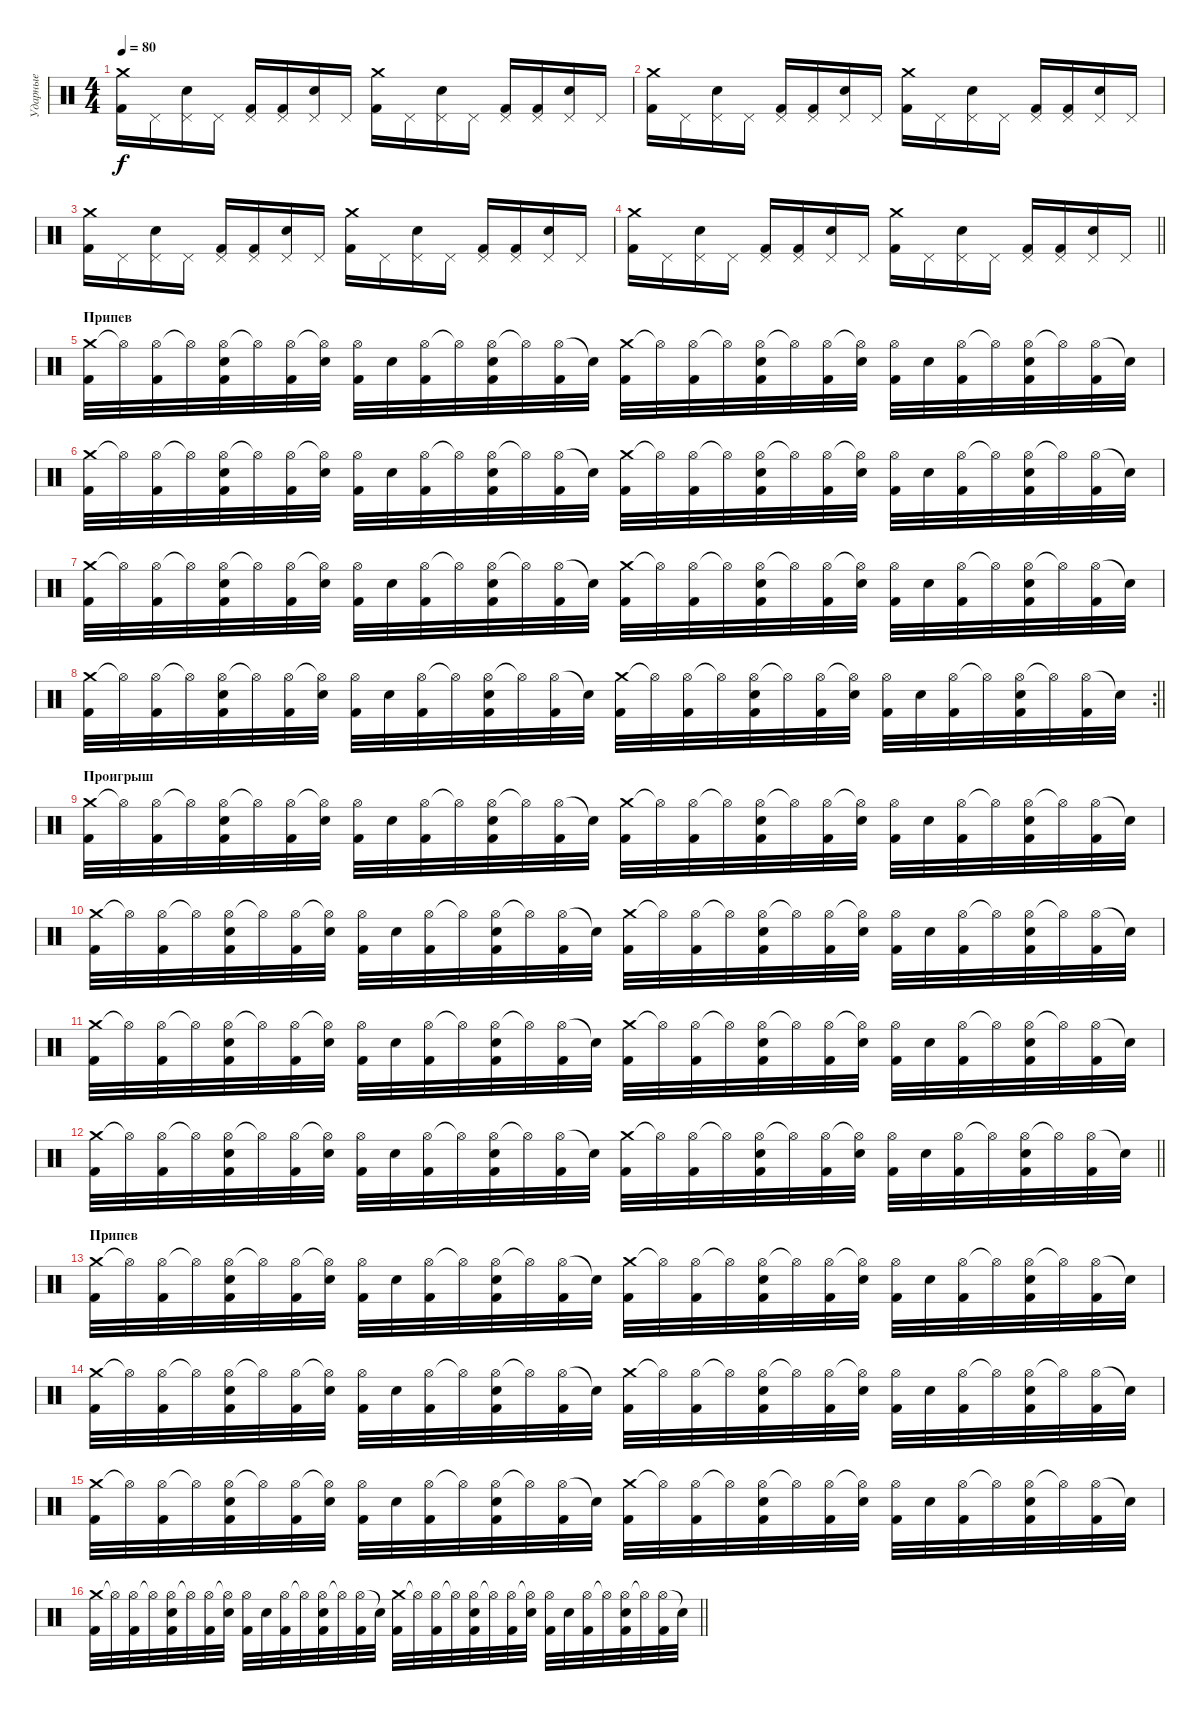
\track ("Ударные" "Ударные") {instrument percussion}
\staff {score}
\articulation defaults
\ts (4 4)
\tempo 80
\clef neutral
\ks c
("Crash medium (hit)" "Kick (hit) 2").16{dy f} "Pedal Hi-Hat (hit)".16 ("Pedal Hi-Hat (hit)" "Snare (hit) 2").16 "Pedal Hi-Hat (hit)".16 ("Pedal Hi-Hat (hit)" "Kick (hit) 2").16 ("Pedal Hi-Hat (hit)" "Kick (hit) 2").16 ("Pedal Hi-Hat (hit)" "Snare (hit) 2").16 "Pedal Hi-Hat (hit)".16 ("Crash medium (hit)" "Kick (hit) 2").16 "Pedal Hi-Hat (hit)".16 ("Pedal Hi-Hat (hit)" "Snare (hit) 2").16 "Pedal Hi-Hat (hit)".16 ("Pedal Hi-Hat (hit)" "Kick (hit) 2").16 ("Pedal Hi-Hat (hit)" "Kick (hit) 2").16 ("Pedal Hi-Hat (hit)" "Snare (hit) 2").16 "Pedal Hi-Hat (hit)".16 |
("Crash medium (hit)" "Kick (hit) 2").16 "Pedal Hi-Hat (hit)".16 ("Pedal Hi-Hat (hit)" "Snare (hit) 2").16 "Pedal Hi-Hat (hit)".16 ("Pedal Hi-Hat (hit)" "Kick (hit) 2").16 ("Pedal Hi-Hat (hit)" "Kick (hit) 2").16 ("Pedal Hi-Hat (hit)" "Snare (hit) 2").16 "Pedal Hi-Hat (hit)".16 ("Crash medium (hit)" "Kick (hit) 2").16 "Pedal Hi-Hat (hit)".16 ("Pedal Hi-Hat (hit)" "Snare (hit) 2").16 "Pedal Hi-Hat (hit)".16 ("Pedal Hi-Hat (hit)" "Kick (hit) 2").16 ("Pedal Hi-Hat (hit)" "Kick (hit) 2").16 ("Pedal Hi-Hat (hit)" "Snare (hit) 2").16 "Pedal Hi-Hat (hit)".16 |
("Crash medium (hit)" "Kick (hit) 2").16 "Pedal Hi-Hat (hit)".16 ("Pedal Hi-Hat (hit)" "Snare (hit) 2").16 "Pedal Hi-Hat (hit)".16 ("Pedal Hi-Hat (hit)" "Kick (hit) 2").16 ("Pedal Hi-Hat (hit)" "Kick (hit) 2").16 ("Pedal Hi-Hat (hit)" "Snare (hit) 2").16 "Pedal Hi-Hat (hit)".16 ("Crash medium (hit)" "Kick (hit) 2").16 "Pedal Hi-Hat (hit)".16 ("Pedal Hi-Hat (hit)" "Snare (hit) 2").16 "Pedal Hi-Hat (hit)".16 ("Pedal Hi-Hat (hit)" "Kick (hit) 2").16 ("Pedal Hi-Hat (hit)" "Kick (hit) 2").16 ("Pedal Hi-Hat (hit)" "Snare (hit) 2").16 "Pedal Hi-Hat (hit)".16 |
\barLineRight lightlight
("Crash medium (hit)" "Kick (hit) 2").16 "Pedal Hi-Hat (hit)".16 ("Pedal Hi-Hat (hit)" "Snare (hit) 2").16 "Pedal Hi-Hat (hit)".16 ("Pedal Hi-Hat (hit)" "Kick (hit) 2").16 ("Pedal Hi-Hat (hit)" "Kick (hit) 2").16 ("Pedal Hi-Hat (hit)" "Snare (hit) 2").16 "Pedal Hi-Hat (hit)".16 ("Crash medium (hit)" "Kick (hit) 2").16 "Pedal Hi-Hat (hit)".16 ("Pedal Hi-Hat (hit)" "Snare (hit) 2").16 "Pedal Hi-Hat (hit)".16 ("Pedal Hi-Hat (hit)" "Kick (hit) 2").16 ("Pedal Hi-Hat (hit)" "Kick (hit) 2").16 ("Pedal Hi-Hat (hit)" "Snare (hit) 2").16 "Pedal Hi-Hat (hit)".16 |
\section ("" "Припев")
("Crash medium (hit)" "Kick (hit) 2").32 "Hi-Hat (open)"{t}.32 ("Hi-Hat (open)" "Kick (hit) 2").32 "Hi-Hat (open)"{t}.32 ("Hi-Hat (open)" "Snare (hit) 2" "Kick (hit) 2").32 "Hi-Hat (open)"{t}.32 ("Hi-Hat (open)" "Kick (hit) 2").32 ("Hi-Hat (open)"{t} "Snare (hit) 2").32 ("Hi-Hat (open)" "Kick (hit) 2").32 "Snare (hit) 2".32 ("Hi-Hat (open)" "Kick (hit) 2").32 "Hi-Hat (open)"{t}.32 ("Hi-Hat (open)" "Snare (hit) 2" "Kick (hit) 2").32 "Hi-Hat (open)"{t}.32 ("Hi-Hat (open)" "Kick (hit) 2").32 "Snare (hit)"{t}.32 ("Crash medium (hit)" "Kick (hit) 2").32 "Hi-Hat (open)"{t}.32 ("Hi-Hat (open)" "Kick (hit) 2").32 "Hi-Hat (open)"{t}.32 ("Hi-Hat (open)" "Snare (hit) 2" "Kick (hit) 2").32 "Hi-Hat (open)"{t}.32 ("Hi-Hat (open)" "Kick (hit) 2").32 ("Hi-Hat (open)"{t} "Snare (hit) 2").32 ("Hi-Hat (open)" "Kick (hit) 2").32 "Snare (hit) 2".32 ("Hi-Hat (open)" "Kick (hit) 2").32 "Hi-Hat (open)"{t}.32 ("Hi-Hat (open)" "Snare (hit) 2" "Kick (hit) 2").32 "Hi-Hat (open)"{t}.32 ("Hi-Hat (open)" "Kick (hit) 2").32 "Snare (hit)"{t}.32 |
("Crash medium (hit)" "Kick (hit) 2").32 "Hi-Hat (open)"{t}.32 ("Hi-Hat (open)" "Kick (hit) 2").32 "Hi-Hat (open)"{t}.32 ("Hi-Hat (open)" "Snare (hit) 2" "Kick (hit) 2").32 "Hi-Hat (open)"{t}.32 ("Hi-Hat (open)" "Kick (hit) 2").32 ("Hi-Hat (open)"{t} "Snare (hit) 2").32 ("Hi-Hat (open)" "Kick (hit) 2").32 "Snare (hit) 2".32 ("Hi-Hat (open)" "Kick (hit) 2").32 "Hi-Hat (open)"{t}.32 ("Hi-Hat (open)" "Snare (hit) 2" "Kick (hit) 2").32 "Hi-Hat (open)"{t}.32 ("Hi-Hat (open)" "Kick (hit) 2").32 "Snare (hit)"{t}.32 ("Crash medium (hit)" "Kick (hit) 2").32 "Hi-Hat (open)"{t}.32 ("Hi-Hat (open)" "Kick (hit) 2").32 "Hi-Hat (open)"{t}.32 ("Hi-Hat (open)" "Snare (hit) 2" "Kick (hit) 2").32 "Hi-Hat (open)"{t}.32 ("Hi-Hat (open)" "Kick (hit) 2").32 ("Hi-Hat (open)"{t} "Snare (hit) 2").32 ("Hi-Hat (open)" "Kick (hit) 2").32 "Snare (hit) 2".32 ("Hi-Hat (open)" "Kick (hit) 2").32 "Hi-Hat (open)"{t}.32 ("Hi-Hat (open)" "Snare (hit) 2" "Kick (hit) 2").32 "Hi-Hat (open)"{t}.32 ("Hi-Hat (open)" "Kick (hit) 2").32 "Snare (hit)"{t}.32 |
("Crash medium (hit)" "Kick (hit) 2").32 "Hi-Hat (open)"{t}.32 ("Hi-Hat (open)" "Kick (hit) 2").32 "Hi-Hat (open)"{t}.32 ("Hi-Hat (open)" "Snare (hit) 2" "Kick (hit) 2").32 "Hi-Hat (open)"{t}.32 ("Hi-Hat (open)" "Kick (hit) 2").32 ("Hi-Hat (open)"{t} "Snare (hit) 2").32 ("Hi-Hat (open)" "Kick (hit) 2").32 "Snare (hit) 2".32 ("Hi-Hat (open)" "Kick (hit) 2").32 "Hi-Hat (open)"{t}.32 ("Hi-Hat (open)" "Snare (hit) 2" "Kick (hit) 2").32 "Hi-Hat (open)"{t}.32 ("Hi-Hat (open)" "Kick (hit) 2").32 "Snare (hit)"{t}.32 ("Crash medium (hit)" "Kick (hit) 2").32 "Hi-Hat (open)"{t}.32 ("Hi-Hat (open)" "Kick (hit) 2").32 "Hi-Hat (open)"{t}.32 ("Hi-Hat (open)" "Snare (hit) 2" "Kick (hit) 2").32 "Hi-Hat (open)"{t}.32 ("Hi-Hat (open)" "Kick (hit) 2").32 ("Hi-Hat (open)"{t} "Snare (hit) 2").32 ("Hi-Hat (open)" "Kick (hit) 2").32 "Snare (hit) 2".32 ("Hi-Hat (open)" "Kick (hit) 2").32 "Hi-Hat (open)"{t}.32 ("Hi-Hat (open)" "Snare (hit) 2" "Kick (hit) 2").32 "Hi-Hat (open)"{t}.32 ("Hi-Hat (open)" "Kick (hit) 2").32 "Snare (hit)"{t}.32 |
\rc 2
\barLineRight lightlight
("Crash medium (hit)" "Kick (hit) 2").32 "Hi-Hat (open)"{t}.32 ("Hi-Hat (open)" "Kick (hit) 2").32 "Hi-Hat (open)"{t}.32 ("Hi-Hat (open)" "Snare (hit) 2" "Kick (hit) 2").32 "Hi-Hat (open)"{t}.32 ("Hi-Hat (open)" "Kick (hit) 2").32 ("Hi-Hat (open)"{t} "Snare (hit) 2").32 ("Hi-Hat (open)" "Kick (hit) 2").32 "Snare (hit) 2".32 ("Hi-Hat (open)" "Kick (hit) 2").32 "Hi-Hat (open)"{t}.32 ("Hi-Hat (open)" "Snare (hit) 2" "Kick (hit) 2").32 "Hi-Hat (open)"{t}.32 ("Hi-Hat (open)" "Kick (hit) 2").32 "Snare (hit)"{t}.32 ("Crash medium (hit)" "Kick (hit) 2").32 "Hi-Hat (open)"{t}.32 ("Hi-Hat (open)" "Kick (hit) 2").32 "Hi-Hat (open)"{t}.32 ("Hi-Hat (open)" "Snare (hit) 2" "Kick (hit) 2").32 "Hi-Hat (open)"{t}.32 ("Hi-Hat (open)" "Kick (hit) 2").32 ("Hi-Hat (open)"{t} "Snare (hit) 2").32 ("Hi-Hat (open)" "Kick (hit) 2").32 "Snare (hit) 2".32 ("Hi-Hat (open)" "Kick (hit) 2").32 "Hi-Hat (open)"{t}.32 ("Hi-Hat (open)" "Snare (hit) 2" "Kick (hit) 2").32 "Hi-Hat (open)"{t}.32 ("Hi-Hat (open)" "Kick (hit) 2").32 "Snare (hit)"{t}.32 |
\section ("" "Проигрыш")
("Crash medium (hit)" "Kick (hit) 2").32 "Hi-Hat (open)"{t}.32 ("Hi-Hat (open)" "Kick (hit) 2").32 "Hi-Hat (open)"{t}.32 ("Hi-Hat (open)" "Snare (hit) 2" "Kick (hit) 2").32 "Hi-Hat (open)"{t}.32 ("Hi-Hat (open)" "Kick (hit) 2").32 ("Hi-Hat (open)"{t} "Snare (hit) 2").32 ("Hi-Hat (open)" "Kick (hit) 2").32 "Snare (hit) 2".32 ("Hi-Hat (open)" "Kick (hit) 2").32 "Hi-Hat (open)"{t}.32 ("Hi-Hat (open)" "Snare (hit) 2" "Kick (hit) 2").32 "Hi-Hat (open)"{t}.32 ("Hi-Hat (open)" "Kick (hit) 2").32 "Snare (hit)"{t}.32 ("Crash medium (hit)" "Kick (hit) 2").32 "Hi-Hat (open)"{t}.32 ("Hi-Hat (open)" "Kick (hit) 2").32 "Hi-Hat (open)"{t}.32 ("Hi-Hat (open)" "Snare (hit) 2" "Kick (hit) 2").32 "Hi-Hat (open)"{t}.32 ("Hi-Hat (open)" "Kick (hit) 2").32 ("Hi-Hat (open)"{t} "Snare (hit) 2").32 ("Hi-Hat (open)" "Kick (hit) 2").32 "Snare (hit) 2".32 ("Hi-Hat (open)" "Kick (hit) 2").32 "Hi-Hat (open)"{t}.32 ("Hi-Hat (open)" "Snare (hit) 2" "Kick (hit) 2").32 "Hi-Hat (open)"{t}.32 ("Hi-Hat (open)" "Kick (hit) 2").32 "Snare (hit)"{t}.32 |
("Crash medium (hit)" "Kick (hit) 2").32 "Hi-Hat (open)"{t}.32 ("Hi-Hat (open)" "Kick (hit) 2").32 "Hi-Hat (open)"{t}.32 ("Hi-Hat (open)" "Snare (hit) 2" "Kick (hit) 2").32 "Hi-Hat (open)"{t}.32 ("Hi-Hat (open)" "Kick (hit) 2").32 ("Hi-Hat (open)"{t} "Snare (hit) 2").32 ("Hi-Hat (open)" "Kick (hit) 2").32 "Snare (hit) 2".32 ("Hi-Hat (open)" "Kick (hit) 2").32 "Hi-Hat (open)"{t}.32 ("Hi-Hat (open)" "Snare (hit) 2" "Kick (hit) 2").32 "Hi-Hat (open)"{t}.32 ("Hi-Hat (open)" "Kick (hit) 2").32 "Snare (hit)"{t}.32 ("Crash medium (hit)" "Kick (hit) 2").32 "Hi-Hat (open)"{t}.32 ("Hi-Hat (open)" "Kick (hit) 2").32 "Hi-Hat (open)"{t}.32 ("Hi-Hat (open)" "Snare (hit) 2" "Kick (hit) 2").32 "Hi-Hat (open)"{t}.32 ("Hi-Hat (open)" "Kick (hit) 2").32 ("Hi-Hat (open)"{t} "Snare (hit) 2").32 ("Hi-Hat (open)" "Kick (hit) 2").32 "Snare (hit) 2".32 ("Hi-Hat (open)" "Kick (hit) 2").32 "Hi-Hat (open)"{t}.32 ("Hi-Hat (open)" "Snare (hit) 2" "Kick (hit) 2").32 "Hi-Hat (open)"{t}.32 ("Hi-Hat (open)" "Kick (hit) 2").32 "Snare (hit)"{t}.32 |
("Crash medium (hit)" "Kick (hit) 2").32 "Hi-Hat (open)"{t}.32 ("Hi-Hat (open)" "Kick (hit) 2").32 "Hi-Hat (open)"{t}.32 ("Hi-Hat (open)" "Snare (hit) 2" "Kick (hit) 2").32 "Hi-Hat (open)"{t}.32 ("Hi-Hat (open)" "Kick (hit) 2").32 ("Hi-Hat (open)"{t} "Snare (hit) 2").32 ("Hi-Hat (open)" "Kick (hit) 2").32 "Snare (hit) 2".32 ("Hi-Hat (open)" "Kick (hit) 2").32 "Hi-Hat (open)"{t}.32 ("Hi-Hat (open)" "Snare (hit) 2" "Kick (hit) 2").32 "Hi-Hat (open)"{t}.32 ("Hi-Hat (open)" "Kick (hit) 2").32 "Snare (hit)"{t}.32 ("Crash medium (hit)" "Kick (hit) 2").32 "Hi-Hat (open)"{t}.32 ("Hi-Hat (open)" "Kick (hit) 2").32 "Hi-Hat (open)"{t}.32 ("Hi-Hat (open)" "Snare (hit) 2" "Kick (hit) 2").32 "Hi-Hat (open)"{t}.32 ("Hi-Hat (open)" "Kick (hit) 2").32 ("Hi-Hat (open)"{t} "Snare (hit) 2").32 ("Hi-Hat (open)" "Kick (hit) 2").32 "Snare (hit) 2".32 ("Hi-Hat (open)" "Kick (hit) 2").32 "Hi-Hat (open)"{t}.32 ("Hi-Hat (open)" "Snare (hit) 2" "Kick (hit) 2").32 "Hi-Hat (open)"{t}.32 ("Hi-Hat (open)" "Kick (hit) 2").32 "Snare (hit)"{t}.32 |
\barLineRight lightlight
("Crash medium (hit)" "Kick (hit) 2").32 "Hi-Hat (open)"{t}.32 ("Hi-Hat (open)" "Kick (hit) 2").32 "Hi-Hat (open)"{t}.32 ("Hi-Hat (open)" "Snare (hit) 2" "Kick (hit) 2").32 "Hi-Hat (open)"{t}.32 ("Hi-Hat (open)" "Kick (hit) 2").32 ("Hi-Hat (open)"{t} "Snare (hit) 2").32 ("Hi-Hat (open)" "Kick (hit) 2").32 "Snare (hit) 2".32 ("Hi-Hat (open)" "Kick (hit) 2").32 "Hi-Hat (open)"{t}.32 ("Hi-Hat (open)" "Snare (hit) 2" "Kick (hit) 2").32 "Hi-Hat (open)"{t}.32 ("Hi-Hat (open)" "Kick (hit) 2").32 "Snare (hit)"{t}.32 ("Crash medium (hit)" "Kick (hit) 2").32 "Hi-Hat (open)"{t}.32 ("Hi-Hat (open)" "Kick (hit) 2").32 "Hi-Hat (open)"{t}.32 ("Hi-Hat (open)" "Snare (hit) 2" "Kick (hit) 2").32 "Hi-Hat (open)"{t}.32 ("Hi-Hat (open)" "Kick (hit) 2").32 ("Hi-Hat (open)"{t} "Snare (hit) 2").32 ("Hi-Hat (open)" "Kick (hit) 2").32 "Snare (hit) 2".32 ("Hi-Hat (open)" "Kick (hit) 2").32 "Hi-Hat (open)"{t}.32 ("Hi-Hat (open)" "Snare (hit) 2" "Kick (hit) 2").32 "Hi-Hat (open)"{t}.32 ("Hi-Hat (open)" "Kick (hit) 2").32 "Snare (hit)"{t}.32 |
\section ("" "Припев")
("Crash medium (hit)" "Kick (hit) 2").32 "Hi-Hat (open)"{t}.32 ("Hi-Hat (open)" "Kick (hit) 2").32 "Hi-Hat (open)"{t}.32 ("Hi-Hat (open)" "Snare (hit) 2" "Kick (hit) 2").32 "Hi-Hat (open)"{t}.32 ("Hi-Hat (open)" "Kick (hit) 2").32 ("Hi-Hat (open)"{t} "Snare (hit) 2").32 ("Hi-Hat (open)" "Kick (hit) 2").32 "Snare (hit) 2".32 ("Hi-Hat (open)" "Kick (hit) 2").32 "Hi-Hat (open)"{t}.32 ("Hi-Hat (open)" "Snare (hit) 2" "Kick (hit) 2").32 "Hi-Hat (open)"{t}.32 ("Hi-Hat (open)" "Kick (hit) 2").32 "Snare (hit)"{t}.32 ("Crash medium (hit)" "Kick (hit) 2").32 "Hi-Hat (open)"{t}.32 ("Hi-Hat (open)" "Kick (hit) 2").32 "Hi-Hat (open)"{t}.32 ("Hi-Hat (open)" "Snare (hit) 2" "Kick (hit) 2").32 "Hi-Hat (open)"{t}.32 ("Hi-Hat (open)" "Kick (hit) 2").32 ("Hi-Hat (open)"{t} "Snare (hit) 2").32 ("Hi-Hat (open)" "Kick (hit) 2").32 "Snare (hit) 2".32 ("Hi-Hat (open)" "Kick (hit) 2").32 "Hi-Hat (open)"{t}.32 ("Hi-Hat (open)" "Snare (hit) 2" "Kick (hit) 2").32 "Hi-Hat (open)"{t}.32 ("Hi-Hat (open)" "Kick (hit) 2").32 "Snare (hit)"{t}.32 |
("Crash medium (hit)" "Kick (hit) 2").32 "Hi-Hat (open)"{t}.32 ("Hi-Hat (open)" "Kick (hit) 2").32 "Hi-Hat (open)"{t}.32 ("Hi-Hat (open)" "Snare (hit) 2" "Kick (hit) 2").32 "Hi-Hat (open)"{t}.32 ("Hi-Hat (open)" "Kick (hit) 2").32 ("Hi-Hat (open)"{t} "Snare (hit) 2").32 ("Hi-Hat (open)" "Kick (hit) 2").32 "Snare (hit) 2".32 ("Hi-Hat (open)" "Kick (hit) 2").32 "Hi-Hat (open)"{t}.32 ("Hi-Hat (open)" "Snare (hit) 2" "Kick (hit) 2").32 "Hi-Hat (open)"{t}.32 ("Hi-Hat (open)" "Kick (hit) 2").32 "Snare (hit)"{t}.32 ("Crash medium (hit)" "Kick (hit) 2").32 "Hi-Hat (open)"{t}.32 ("Hi-Hat (open)" "Kick (hit) 2").32 "Hi-Hat (open)"{t}.32 ("Hi-Hat (open)" "Snare (hit) 2" "Kick (hit) 2").32 "Hi-Hat (open)"{t}.32 ("Hi-Hat (open)" "Kick (hit) 2").32 ("Hi-Hat (open)"{t} "Snare (hit) 2").32 ("Hi-Hat (open)" "Kick (hit) 2").32 "Snare (hit) 2".32 ("Hi-Hat (open)" "Kick (hit) 2").32 "Hi-Hat (open)"{t}.32 ("Hi-Hat (open)" "Snare (hit) 2" "Kick (hit) 2").32 "Hi-Hat (open)"{t}.32 ("Hi-Hat (open)" "Kick (hit) 2").32 "Snare (hit)"{t}.32 |
("Crash medium (hit)" "Kick (hit) 2").32 "Hi-Hat (open)"{t}.32 ("Hi-Hat (open)" "Kick (hit) 2").32 "Hi-Hat (open)"{t}.32 ("Hi-Hat (open)" "Snare (hit) 2" "Kick (hit) 2").32 "Hi-Hat (open)"{t}.32 ("Hi-Hat (open)" "Kick (hit) 2").32 ("Hi-Hat (open)"{t} "Snare (hit) 2").32 ("Hi-Hat (open)" "Kick (hit) 2").32 "Snare (hit) 2".32 ("Hi-Hat (open)" "Kick (hit) 2").32 "Hi-Hat (open)"{t}.32 ("Hi-Hat (open)" "Snare (hit) 2" "Kick (hit) 2").32 "Hi-Hat (open)"{t}.32 ("Hi-Hat (open)" "Kick (hit) 2").32 "Snare (hit)"{t}.32 ("Crash medium (hit)" "Kick (hit) 2").32 "Hi-Hat (open)"{t}.32 ("Hi-Hat (open)" "Kick (hit) 2").32 "Hi-Hat (open)"{t}.32 ("Hi-Hat (open)" "Snare (hit) 2" "Kick (hit) 2").32 "Hi-Hat (open)"{t}.32 ("Hi-Hat (open)" "Kick (hit) 2").32 ("Hi-Hat (open)"{t} "Snare (hit) 2").32 ("Hi-Hat (open)" "Kick (hit) 2").32 "Snare (hit) 2".32 ("Hi-Hat (open)" "Kick (hit) 2").32 "Hi-Hat (open)"{t}.32 ("Hi-Hat (open)" "Snare (hit) 2" "Kick (hit) 2").32 "Hi-Hat (open)"{t}.32 ("Hi-Hat (open)" "Kick (hit) 2").32 "Snare (hit)"{t}.32 |
\barLineRight lightlight
("Crash medium (hit)" "Kick (hit) 2").32 "Hi-Hat (open)"{t}.32 ("Hi-Hat (open)" "Kick (hit) 2").32 "Hi-Hat (open)"{t}.32 ("Hi-Hat (open)" "Snare (hit) 2" "Kick (hit) 2").32 "Hi-Hat (open)"{t}.32 ("Hi-Hat (open)" "Kick (hit) 2").32 ("Hi-Hat (open)"{t} "Snare (hit) 2").32 ("Hi-Hat (open)" "Kick (hit) 2").32 "Snare (hit) 2".32 ("Hi-Hat (open)" "Kick (hit) 2").32 "Hi-Hat (open)"{t}.32 ("Hi-Hat (open)" "Snare (hit) 2" "Kick (hit) 2").32 "Hi-Hat (open)"{t}.32 ("Hi-Hat (open)" "Kick (hit) 2").32 "Snare (hit)"{t}.32 ("Crash medium (hit)" "Kick (hit) 2").32 "Hi-Hat (open)"{t}.32 ("Hi-Hat (open)" "Kick (hit) 2").32 "Hi-Hat (open)"{t}.32 ("Hi-Hat (open)" "Snare (hit) 2" "Kick (hit) 2").32 "Hi-Hat (open)"{t}.32 ("Hi-Hat (open)" "Kick (hit) 2").32 ("Hi-Hat (open)"{t} "Snare (hit) 2").32 ("Hi-Hat (open)" "Kick (hit) 2").32 "Snare (hit) 2".32 ("Hi-Hat (open)" "Kick (hit) 2").32 "Hi-Hat (open)"{t}.32 ("Hi-Hat (open)" "Snare (hit) 2" "Kick (hit) 2").32 "Hi-Hat (open)"{t}.32 ("Hi-Hat (open)" "Kick (hit) 2").32 "Snare (hit)"{t}.32
